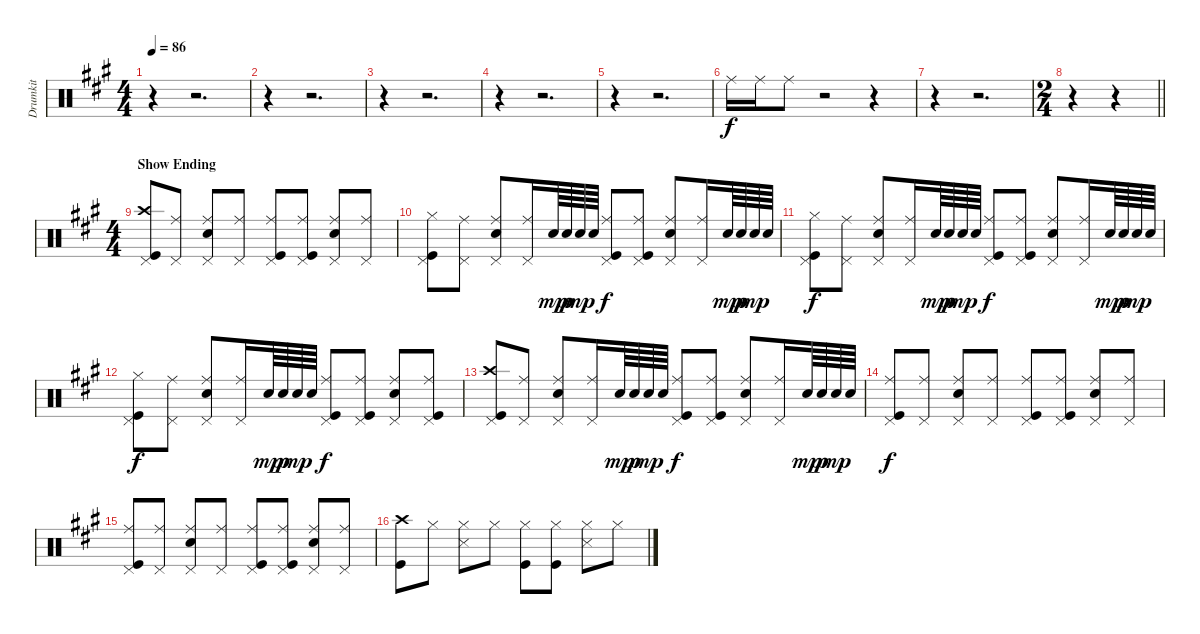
\track ("Drumkit" "Drumkit") {instrument percussion}
\staff {score}
\articulation defaults
\ts (4 4)
\tempo 86
\clef neutral
\ks a
r.4{dy f} r.2{d} |
r.4 r.2{d} |
r.4 r.2{d} |
r.4 r.2{d} |
r.4 r.2{d} |
"Ride (middle)".16 "Ride (middle)".16 "Ride (middle)".8 r.2 r.4 |
r.4 r.2{d} |
\ts (2 4)
\barLineRight lightlight
r.4 r.4 |
\ts (4 4)
\section ("" "Show Ending")
("Kick (hit)" "Crash high (hit)" "Pedal Hi-Hat (hit)").8 ("Ride (middle)" "Pedal Hi-Hat (hit)").8 ("Ride (middle)" "Snare (hit) 2" "Pedal Hi-Hat (hit)").8 ("Pedal Hi-Hat (hit)" "Ride (middle)").8 ("Kick (hit)" "Ride (middle)" "Pedal Hi-Hat (hit)").8 ("Kick (hit)" "Ride (middle)" "Pedal Hi-Hat (hit)").8 ("Ride (middle)" "Snare (hit) 2" "Pedal Hi-Hat (hit)").8 ("Ride (middle)" "Pedal Hi-Hat (hit)").8 |
("Kick (hit)" "Hi-Hat (closed)" "Pedal Hi-Hat (hit)").8 ("Ride (middle)" "Pedal Hi-Hat (hit)").8 ("Ride (middle)" "Snare (hit) 2" "Pedal Hi-Hat (hit)").8 ("Pedal Hi-Hat (hit)" "Ride (middle)").16 "Snare (hit) 2".64{dy mp} "Snare (hit) 2".64{dy p} "Snare (hit) 2".64{dy mp} "Snare (hit) 2".64 ("Kick (hit)" "Ride (middle)" "Pedal Hi-Hat (hit)").8{dy f} ("Kick (hit)" "Ride (middle)" "Pedal Hi-Hat (hit)").8 ("Ride (middle)" "Snare (hit) 2" "Pedal Hi-Hat (hit)").8 ("Ride (middle)" "Pedal Hi-Hat (hit)").16 "Snare (hit) 2".64{dy mp} "Snare (hit) 2".64{dy p} "Snare (hit) 2".64{dy mp} "Snare (hit) 2".64 |
("Kick (hit)" "Hi-Hat (closed)" "Pedal Hi-Hat (hit)").8{dy f} ("Ride (middle)" "Pedal Hi-Hat (hit)").8 ("Ride (middle)" "Snare (hit) 2" "Pedal Hi-Hat (hit)").8 ("Pedal Hi-Hat (hit)" "Ride (middle)").16 "Snare (hit) 2".64{dy mp} "Snare (hit) 2".64{dy p} "Snare (hit) 2".64{dy mp} "Snare (hit) 2".64 ("Kick (hit)" "Ride (middle)" "Pedal Hi-Hat (hit)").8{dy f} ("Kick (hit)" "Ride (middle)" "Pedal Hi-Hat (hit)").8 ("Ride (middle)" "Snare (hit) 2" "Pedal Hi-Hat (hit)").8 ("Ride (middle)" "Pedal Hi-Hat (hit)").16 "Snare (hit) 2".64{dy mp} "Snare (hit) 2".64{dy p} "Snare (hit) 2".64{dy mp} "Snare (hit) 2".64 |
("Kick (hit)" "Hi-Hat (closed)" "Pedal Hi-Hat (hit)").8{dy f} ("Ride (middle)" "Pedal Hi-Hat (hit)").8 ("Ride (middle)" "Snare (hit) 2" "Pedal Hi-Hat (hit)").8 ("Pedal Hi-Hat (hit)" "Ride (middle)").16 "Snare (hit) 2".64{dy mp} "Snare (hit) 2".64{dy p} "Snare (hit) 2".64{dy mp} "Snare (hit) 2".64 ("Kick (hit)" "Ride (middle)" "Pedal Hi-Hat (hit)").8{dy f} ("Kick (hit)" "Ride (middle)" "Pedal Hi-Hat (hit)").8 ("Ride (middle)" "Snare (hit) 2" "Pedal Hi-Hat (hit)").8 ("Ride (middle)" "Pedal Hi-Hat (hit)" "Kick (hit)").8 |
("Kick (hit)" "Crash high (hit)" "Pedal Hi-Hat (hit)").8 ("Ride (middle)" "Pedal Hi-Hat (hit)").8 ("Ride (middle)" "Snare (hit) 2" "Pedal Hi-Hat (hit)").8 ("Pedal Hi-Hat (hit)" "Ride (middle)").16 "Snare (hit) 2".64{dy mp} "Snare (hit) 2".64{dy p} "Snare (hit) 2".64{dy mp} "Snare (hit) 2".64 ("Kick (hit)" "Ride (middle)" "Pedal Hi-Hat (hit)").8{dy f} ("Kick (hit)" "Ride (middle)" "Pedal Hi-Hat (hit)").8 ("Ride (middle)" "Snare (hit) 2" "Pedal Hi-Hat (hit)").8 ("Ride (middle)" "Pedal Hi-Hat (hit)").16 "Snare (hit) 2".64{dy mp} "Snare (hit) 2".64{dy p} "Snare (hit) 2".64{dy mp} "Snare (hit) 2".64 |
("Kick (hit)" "Ride (middle)" "Pedal Hi-Hat (hit)").8{dy f} ("Ride (middle)" "Pedal Hi-Hat (hit)").8 ("Ride (middle)" "Snare (hit) 2" "Pedal Hi-Hat (hit)").8 ("Pedal Hi-Hat (hit)" "Ride (middle)").8 ("Kick (hit)" "Ride (middle)" "Pedal Hi-Hat (hit)").8 ("Kick (hit)" "Ride (middle)" "Pedal Hi-Hat (hit)").8 ("Ride (middle)" "Snare (hit) 2" "Pedal Hi-Hat (hit)").8 ("Ride (middle)" "Pedal Hi-Hat (hit)").8 |
\section ("" "")
("Kick (hit)" "Ride (middle)" "Pedal Hi-Hat (hit)").8 ("Ride (middle)" "Pedal Hi-Hat (hit)").8 ("Ride (middle)" "Snare (hit) 2" "Pedal Hi-Hat (hit)").8 ("Pedal Hi-Hat (hit)" "Ride (middle)").8 ("Kick (hit)" "Ride (middle)" "Pedal Hi-Hat (hit)").8 ("Kick (hit)" "Ride (middle)" "Pedal Hi-Hat (hit)").8 ("Ride (middle)" "Snare (hit) 2" "Pedal Hi-Hat (hit)").8 ("Ride (middle)" "Pedal Hi-Hat (hit)").8 |
("Kick (hit)" "Crash high (hit)").8 "Hi-Hat (closed)".8 ("Hi-Hat (closed)" "Snare (side stick) 3").8 "Hi-Hat (closed)".8 ("Kick (hit)" "Hi-Hat (closed)").8 ("Kick (hit)" "Hi-Hat (closed)").8 ("Snare (side stick) 3" "Hi-Hat (closed)").8 "Hi-Hat (closed)".8
